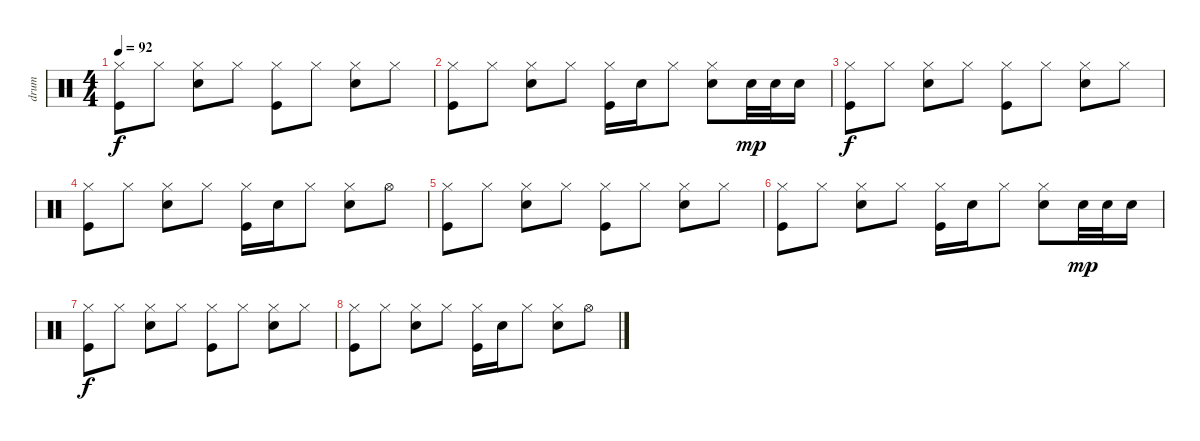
\track ("drum" "drum") {instrument percussion}
\staff {score}
\articulation defaults
\ts (4 4)
\tempo 92
\clef neutral
\ks c
("Hi-Hat (closed)" "Kick (hit)").8{dy f} "Hi-Hat (closed)".8 ("Hi-Hat (closed)" "Snare (hit) 2").8 "Hi-Hat (closed)".8 ("Hi-Hat (closed)" "Kick (hit)").8 "Hi-Hat (closed)".8 ("Hi-Hat (closed)" "Snare (hit) 2").8 "Hi-Hat (closed)".8 |
("Hi-Hat (closed)" "Kick (hit)").8 "Hi-Hat (closed)".8 ("Hi-Hat (closed)" "Snare (hit) 2").8 "Hi-Hat (closed)".8 ("Hi-Hat (closed)" "Kick (hit)").16 "Snare (hit) 2".16 "Hi-Hat (closed)".8 ("Hi-Hat (closed)" "Snare (hit) 2").8 "Snare (hit) 2".32{dy mp} "Snare (hit) 2".32 "Snare (hit) 2".16 |
("Hi-Hat (closed)" "Kick (hit)").8{dy f} "Hi-Hat (closed)".8 ("Hi-Hat (closed)" "Snare (hit) 2").8 "Hi-Hat (closed)".8 ("Hi-Hat (closed)" "Kick (hit)").8 "Hi-Hat (closed)".8 ("Hi-Hat (closed)" "Snare (hit) 2").8 "Hi-Hat (closed)".8 |
("Hi-Hat (closed)" "Kick (hit)").8 "Hi-Hat (closed)".8 ("Hi-Hat (closed)" "Snare (hit) 2").8 "Hi-Hat (closed)".8 ("Hi-Hat (closed)" "Kick (hit)").16 "Snare (hit) 2".16 "Hi-Hat (closed)".8 ("Hi-Hat (closed)" "Snare (hit) 2").8 "Hi-Hat (open)".8 |
("Hi-Hat (closed)" "Kick (hit)").8 "Hi-Hat (closed)".8 ("Hi-Hat (closed)" "Snare (hit) 2").8 "Hi-Hat (closed)".8 ("Hi-Hat (closed)" "Kick (hit)").8 "Hi-Hat (closed)".8 ("Hi-Hat (closed)" "Snare (hit) 2").8 "Hi-Hat (closed)".8 |
("Hi-Hat (closed)" "Kick (hit)").8 "Hi-Hat (closed)".8 ("Hi-Hat (closed)" "Snare (hit) 2").8 "Hi-Hat (closed)".8 ("Hi-Hat (closed)" "Kick (hit)").16 "Snare (hit) 2".16 "Hi-Hat (closed)".8 ("Hi-Hat (closed)" "Snare (hit) 2").8 "Snare (hit) 2".32{dy mp} "Snare (hit) 2".32 "Snare (hit) 2".16 |
("Hi-Hat (closed)" "Kick (hit)").8{dy f} "Hi-Hat (closed)".8 ("Hi-Hat (closed)" "Snare (hit) 2").8 "Hi-Hat (closed)".8 ("Hi-Hat (closed)" "Kick (hit)").8 "Hi-Hat (closed)".8 ("Hi-Hat (closed)" "Snare (hit) 2").8 "Hi-Hat (closed)".8 |
("Hi-Hat (closed)" "Kick (hit)").8 "Hi-Hat (closed)".8 ("Hi-Hat (closed)" "Snare (hit) 2").8 "Hi-Hat (closed)".8 ("Hi-Hat (closed)" "Kick (hit)").16 "Snare (hit) 2".16 "Hi-Hat (closed)".8 ("Hi-Hat (closed)" "Snare (hit) 2").8 "Hi-Hat (open)".8
